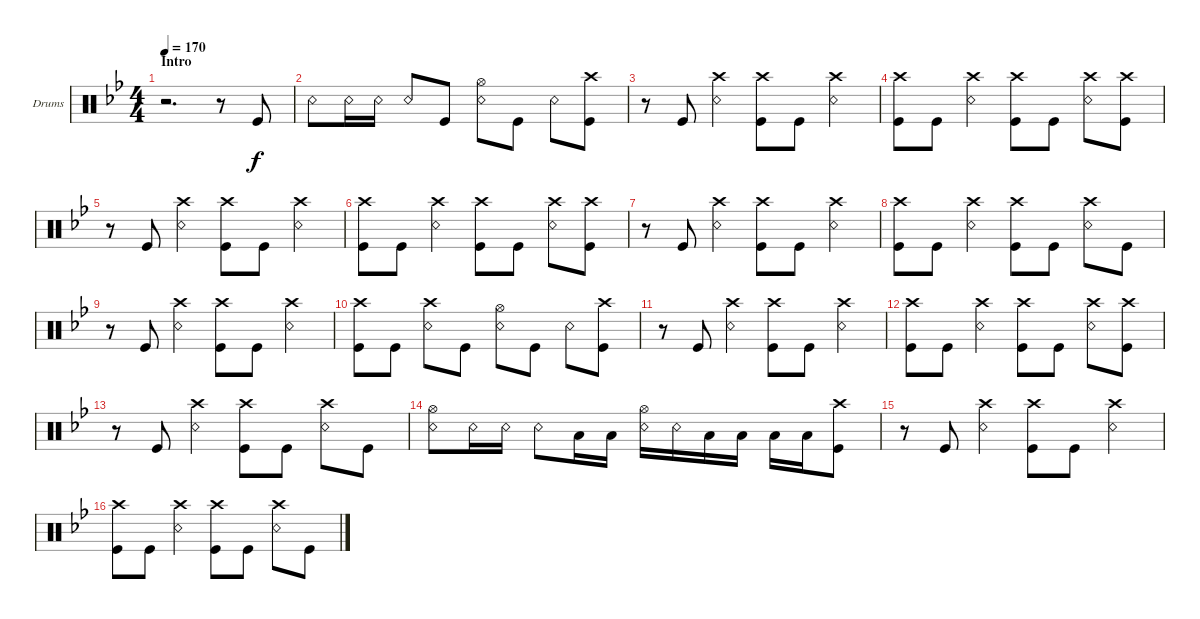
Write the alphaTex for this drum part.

\defaultSystemsLayout 4
\bracketExtendMode groupsimilarinstruments
\firstSystemTrackNameOrientation horizontal
\otherSystemsTrackNameOrientation horizontal
\track ("Drums" "Drums") {instrument percussion}
\staff {score}
\articulation defaults
\ts (4 4)
\section ("" "Intro")
\tempo 170
\clef neutral
\ks bb
r.2{d dy f} r.8 "Kick (hit)".8 |
"Snare (rim shot)".8 "Snare (rim shot)".16 "Snare (rim shot)".16 "Snare (rim shot)".8 "Kick (hit)".8 ("Snare (rim shot)" "Hi-Hat (open)").8 "Kick (hit)".8 "Snare (rim shot)".8 ("Kick (hit)" "Crash high (hit)").8 |
r.8 "Kick (hit)".8 ("Snare (rim shot)" "Crash high (hit)").4 ("Kick (hit)" "Crash high (hit)").8 "Kick (hit)".8 ("Snare (rim shot)" "Crash high (hit)").4 |
("Kick (hit)" "Crash high (hit)").8 "Kick (hit)".8 ("Snare (rim shot)" "Crash high (hit)").4 ("Kick (hit)" "Crash high (hit)").8 "Kick (hit)".8 ("Snare (rim shot)" "Crash high (hit)").8 ("Kick (hit)" "Crash high (hit)").8 |
r.8 "Kick (hit)".8 ("Snare (rim shot)" "Crash high (hit)").4 ("Kick (hit)" "Crash high (hit)").8 "Kick (hit)".8 ("Snare (rim shot)" "Crash high (hit)").4 |
("Kick (hit)" "Crash high (hit)").8 "Kick (hit)".8 ("Snare (rim shot)" "Crash high (hit)").4 ("Kick (hit)" "Crash high (hit)").8 "Kick (hit)".8 ("Snare (rim shot)" "Crash high (hit)").8 ("Kick (hit)" "Crash high (hit)").8 |
r.8 "Kick (hit)".8 ("Snare (rim shot)" "Crash high (hit)").4 ("Kick (hit)" "Crash high (hit)").8 "Kick (hit)".8 ("Snare (rim shot)" "Crash high (hit)").4 |
("Kick (hit)" "Crash high (hit)").8 "Kick (hit)".8 ("Snare (rim shot)" "Crash high (hit)").4 ("Kick (hit)" "Crash high (hit)").8 "Kick (hit)".8 ("Snare (rim shot)" "Crash high (hit)").8 "Kick (hit)".8 |
r.8 "Kick (hit)".8 ("Snare (rim shot)" "Crash high (hit)").4 ("Kick (hit)" "Crash high (hit)").8 "Kick (hit)".8 ("Snare (rim shot)" "Crash high (hit)").4 |
("Kick (hit)" "Crash high (hit)").8 "Kick (hit)".8 ("Snare (rim shot)" "Crash high (hit)").8 "Kick (hit)".8 ("Snare (rim shot)" "Hi-Hat (open)").8 "Kick (hit)".8 "Snare (rim shot)".8 ("Kick (hit)" "Crash high (hit)").8 |
r.8 "Kick (hit)".8 ("Snare (rim shot)" "Crash high (hit)").4 ("Kick (hit)" "Crash high (hit)").8 "Kick (hit)".8 ("Snare (rim shot)" "Crash high (hit)").4 |
("Kick (hit)" "Crash high (hit)").8 "Kick (hit)".8 ("Snare (rim shot)" "Crash high (hit)").4 ("Kick (hit)" "Crash high (hit)").8 "Kick (hit)".8 ("Snare (rim shot)" "Crash high (hit)").8 ("Kick (hit)" "Crash high (hit)").8 |
r.8 "Kick (hit)".8 ("Snare (rim shot)" "Crash high (hit)").4 ("Kick (hit)" "Crash high (hit)").8 "Kick (hit)".8 ("Snare (rim shot)" "Crash high (hit)").8 "Kick (hit)".8 |
("Snare (rim shot)" "Hi-Hat (open)").8 "Snare (rim shot)".16 "Snare (rim shot)".16 "Snare (rim shot)".8 "Low Tom (hit)".16 "Low Tom (hit)".16 ("Snare (rim shot)" "Hi-Hat (open)").16 "Snare (rim shot)".16 "Low Tom (hit)".16 "Low Tom (hit)".16 "Low Tom (hit)".16 "Low Tom (hit)".16 ("Kick (hit)" "Crash high (hit)").8 |
r.8 "Kick (hit)".8 ("Snare (rim shot)" "Crash high (hit)").4 ("Kick (hit)" "Crash high (hit)").8 "Kick (hit)".8 ("Snare (rim shot)" "Crash high (hit)").4 |
("Kick (hit)" "Crash high (hit)").8 "Kick (hit)".8 ("Snare (rim shot)" "Crash high (hit)").4 ("Kick (hit)" "Crash high (hit)").8 "Kick (hit)".8 ("Snare (rim shot)" "Crash high (hit)").8 "Kick (hit)".8
